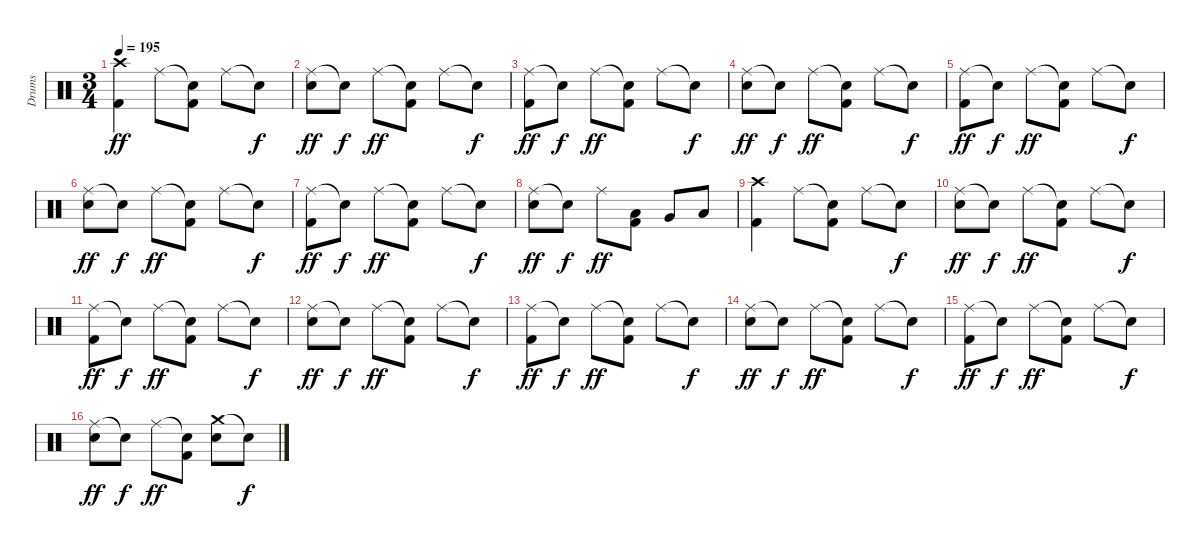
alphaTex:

\track ("Drums" "Drums") {instrument percussion}
\staff {score}
\articulation defaults
\ts (3 4)
\tempo 195
\clef neutral
\ks c
("Crash high (hit)" "Kick (hit) 2").4{dy ff} "Ride (middle)".8 ("Snare (hit)"{t} "Kick (hit) 2").8 "Ride (middle)".8 "Snare (hit)"{t}.8{dy f} |
("Ride (middle)" "Electric Snare (hit)").8{dy ff} "Snare (hit)"{t}.8{dy f} "Ride (middle)".8{dy ff} ("Snare (hit)"{t} "Kick (hit) 2").8 "Ride (middle)".8 "Snare (hit)"{t}.8{dy f} |
("Ride (middle)" "Kick (hit) 2").8{dy ff} "Snare (hit)"{t}.8{dy f} "Ride (middle)".8{dy ff} ("Snare (hit)"{t} "Kick (hit) 2").8 "Ride (middle)".8 "Snare (hit)"{t}.8{dy f} |
("Ride (middle)" "Electric Snare (hit)").8{dy ff} "Snare (hit)"{t}.8{dy f} "Ride (middle)".8{dy ff} ("Snare (hit)"{t} "Kick (hit) 2").8 "Ride (middle)".8 "Snare (hit)"{t}.8{dy f} |
("Ride (middle)" "Kick (hit) 2").8{dy ff} "Snare (hit)"{t}.8{dy f} "Ride (middle)".8{dy ff} ("Snare (hit)"{t} "Kick (hit) 2").8 "Ride (middle)".8 "Snare (hit)"{t}.8{dy f} |
("Ride (middle)" "Electric Snare (hit)").8{dy ff} "Snare (hit)"{t}.8{dy f} "Ride (middle)".8{dy ff} ("Snare (hit)"{t} "Kick (hit) 2").8 "Ride (middle)".8 "Snare (hit)"{t}.8{dy f} |
("Ride (middle)" "Kick (hit) 2").8{dy ff} "Snare (hit)"{t}.8{dy f} "Ride (middle)".8{dy ff} ("Snare (hit)"{t} "Kick (hit) 2").8 "Ride (middle)".8 "Snare (hit)"{t}.8{dy f} |
("Ride (middle)" "Electric Snare (hit)").8{dy ff} "Snare (hit)"{t}.8{dy f} "Ride (middle)".8{dy ff} ("Low Tom (hit)" "Kick (hit) 2").8 "Very Low Tom (hit)".8 "Low Floor Tom (hit)".8 |
("Crash high (hit)" "Kick (hit) 2").4 "Ride (middle)".8 ("Snare (hit)"{t} "Kick (hit) 2").8 "Ride (middle)".8 "Snare (hit)"{t}.8{dy f} |
("Ride (middle)" "Electric Snare (hit)").8{dy ff} "Snare (hit)"{t}.8{dy f} "Ride (middle)".8{dy ff} ("Snare (hit)"{t} "Kick (hit) 2").8 "Ride (middle)".8 "Snare (hit)"{t}.8{dy f} |
("Ride (middle)" "Kick (hit) 2").8{dy ff} "Snare (hit)"{t}.8{dy f} "Ride (middle)".8{dy ff} ("Snare (hit)"{t} "Kick (hit) 2").8 "Ride (middle)".8 "Snare (hit)"{t}.8{dy f} |
("Ride (middle)" "Electric Snare (hit)").8{dy ff} "Snare (hit)"{t}.8{dy f} "Ride (middle)".8{dy ff} ("Snare (hit)"{t} "Kick (hit) 2").8 "Ride (middle)".8 "Snare (hit)"{t}.8{dy f} |
("Ride (middle)" "Kick (hit) 2").8{dy ff} "Snare (hit)"{t}.8{dy f} "Ride (middle)".8{dy ff} ("Snare (hit)"{t} "Kick (hit) 2").8 "Ride (middle)".8 "Snare (hit)"{t}.8{dy f} |
("Ride (middle)" "Electric Snare (hit)").8{dy ff} "Snare (hit)"{t}.8{dy f} "Ride (middle)".8{dy ff} ("Snare (hit)"{t} "Kick (hit) 2").8 "Ride (middle)".8 "Snare (hit)"{t}.8{dy f} |
("Ride (middle)" "Kick (hit) 2").8{dy ff} "Snare (hit)"{t}.8{dy f} "Ride (middle)".8{dy ff} ("Snare (hit)"{t} "Kick (hit) 2").8 "Ride (middle)".8 "Snare (hit)"{t}.8{dy f} |
("Ride (middle)" "Electric Snare (hit)").8{dy ff} "Snare (hit)"{t}.8{dy f} "Ride (middle)".8{dy ff} ("Snare (hit)"{t} "Kick (hit) 2").8 ("Crash medium (hit)" "Electric Snare (hit)").8 "Snare (hit)"{t}.8{dy f}
